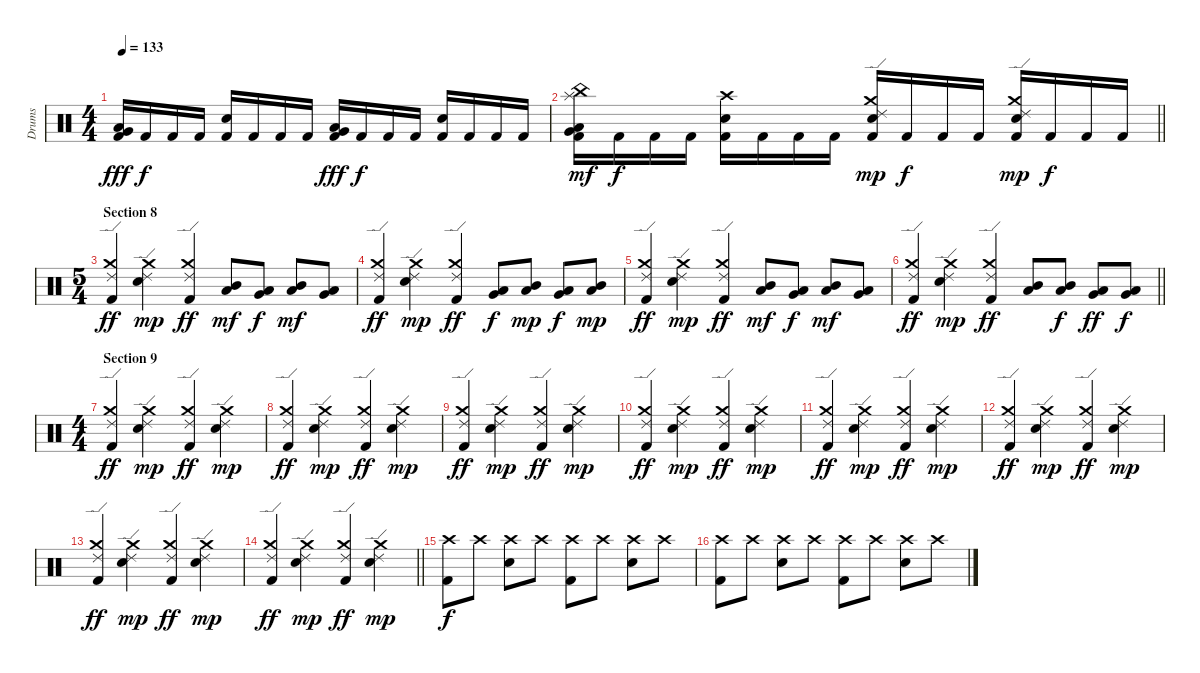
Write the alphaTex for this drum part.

\track ("Drums" "Drums") {instrument percussion}
\staff {score}
\articulation defaults
\ts (4 4)
\tempo 133
\clef neutral
\ks c
("Very Low Tom (hit)" "Low Floor Tom (hit)" "Kick (hit) 2").16{dy fff} "Kick (hit) 2".16{dy f} "Kick (hit) 2".16 "Kick (hit) 2".16 ("Electric Snare (hit)" "Kick (hit) 2").16 "Kick (hit) 2".16 "Kick (hit) 2".16 "Kick (hit) 2".16 ("Very Low Tom (hit)" "Low Floor Tom (hit)" "Kick (hit) 2").16{dy fff} "Kick (hit) 2".16{dy f} "Kick (hit) 2".16 "Kick (hit) 2".16 ("Electric Snare (hit)" "Kick (hit) 2").16 "Kick (hit) 2".16 "Kick (hit) 2".16 "Kick (hit) 2".16 |
\barLineRight lightlight
("Splash (hit)" "China (hit)" "Low Floor Tom (hit)" "Very Low Tom (hit)" "Kick (hit) 2").16{dy mf} "Kick (hit) 2".16{dy f} "Kick (hit) 2".16 "Kick (hit) 2".16 ("Crash high (hit)" "Electric Snare (hit)" "Kick (hit) 2").16 "Kick (hit) 2".16 "Kick (hit) 2".16 "Kick (hit) 2".16 ("Crash medium (hit)" "Ride (edge) 2" "Electric Snare (hit)" "Kick (hit) 2").16{dy mp} "Kick (hit) 2".16{dy f} "Kick (hit) 2".16 "Kick (hit) 2".16 ("Crash medium (hit)" "Ride (edge) 2" "Electric Snare (hit)" "Kick (hit) 2").16{dy mp} "Kick (hit) 2".16{dy f} "Kick (hit) 2".16 "Kick (hit) 2".16 |
\ts (5 4)
\section ("" "Section 8")
("Crash medium (hit)" "Ride (edge) 2" "Kick (hit) 2").4{dy ff} ("Crash medium (hit)" "Ride (edge) 2" "Electric Snare (hit)").4{dy mp} ("Crash medium (hit)" "Ride (edge) 2" "Kick (hit) 2").4{dy ff} ("Low Tom (hit)" "Mid Tom (hit)").8{dy mf} ("Very Low Tom (hit)" "Low Floor Tom (hit)").8{dy f} ("Low Tom (hit)" "Mid Tom (hit)").8{dy mf} ("Very Low Tom (hit)" "Low Floor Tom (hit)").8 |
("Crash medium (hit)" "Ride (edge) 2" "Kick (hit) 2").4{dy ff} ("Crash medium (hit)" "Ride (edge) 2" "Electric Snare (hit)").4{dy mp} ("Crash medium (hit)" "Ride (edge) 2" "Kick (hit) 2").4{dy ff} ("Very Low Tom (hit)" "Low Floor Tom (hit)").8{dy f} ("Low Tom (hit)" "Mid Tom (hit)").8{dy mp} ("Very Low Tom (hit)" "Low Floor Tom (hit)").8{dy f} ("Low Tom (hit)" "Mid Tom (hit)").8{dy mp} |
("Crash medium (hit)" "Ride (edge) 2" "Kick (hit) 2").4{dy ff} ("Crash medium (hit)" "Ride (edge) 2" "Electric Snare (hit)").4{dy mp} ("Crash medium (hit)" "Ride (edge) 2" "Kick (hit) 2").4{dy ff} ("Low Tom (hit)" "Mid Tom (hit)").8{dy mf} ("Very Low Tom (hit)" "Low Floor Tom (hit)").8{dy f} ("Low Tom (hit)" "Mid Tom (hit)").8{dy mf} ("Very Low Tom (hit)" "Low Floor Tom (hit)").8 |
\barLineRight lightlight
("Crash medium (hit)" "Ride (edge) 2" "Kick (hit) 2").4{dy ff} ("Crash medium (hit)" "Ride (edge) 2" "Electric Snare (hit)").4{dy mp} ("Crash medium (hit)" "Ride (edge) 2" "Kick (hit) 2").4{dy ff} ("Low Tom (hit)" "Mid Tom (hit)").8 ("Low Tom (hit)" "Mid Tom (hit)").8{dy f} ("Very Low Tom (hit)" "Low Floor Tom (hit)").8{dy ff} ("Very Low Tom (hit)" "Low Floor Tom (hit)").8{dy f} |
\ts (4 4)
\section ("" "Section 9")
("Crash medium (hit)" "Ride (edge) 2" "Kick (hit) 2").4{dy ff} ("Crash medium (hit)" "Ride (edge) 2" "Electric Snare (hit)").4{dy mp} ("Crash medium (hit)" "Ride (edge) 2" "Kick (hit) 2").4{dy ff} ("Crash medium (hit)" "Ride (edge) 2" "Electric Snare (hit)").4{dy mp} |
("Crash medium (hit)" "Ride (edge) 2" "Kick (hit) 2").4{dy ff} ("Crash medium (hit)" "Ride (edge) 2" "Electric Snare (hit)").4{dy mp} ("Crash medium (hit)" "Ride (edge) 2" "Kick (hit) 2").4{dy ff} ("Crash medium (hit)" "Ride (edge) 2" "Electric Snare (hit)").4{dy mp} |
("Crash medium (hit)" "Ride (edge) 2" "Kick (hit) 2").4{dy ff} ("Crash medium (hit)" "Ride (edge) 2" "Electric Snare (hit)").4{dy mp} ("Crash medium (hit)" "Ride (edge) 2" "Kick (hit) 2").4{dy ff} ("Crash medium (hit)" "Ride (edge) 2" "Electric Snare (hit)").4{dy mp} |
("Crash medium (hit)" "Ride (edge) 2" "Kick (hit) 2").4{dy ff} ("Crash medium (hit)" "Ride (edge) 2" "Electric Snare (hit)").4{dy mp} ("Crash medium (hit)" "Ride (edge) 2" "Kick (hit) 2").4{dy ff} ("Crash medium (hit)" "Ride (edge) 2" "Electric Snare (hit)").4{dy mp} |
("Crash medium (hit)" "Ride (edge) 2" "Kick (hit) 2").4{dy ff} ("Crash medium (hit)" "Ride (edge) 2" "Electric Snare (hit)").4{dy mp} ("Crash medium (hit)" "Ride (edge) 2" "Kick (hit) 2").4{dy ff} ("Crash medium (hit)" "Ride (edge) 2" "Electric Snare (hit)").4{dy mp} |
("Crash medium (hit)" "Ride (edge) 2" "Kick (hit) 2").4{dy ff} ("Crash medium (hit)" "Ride (edge) 2" "Electric Snare (hit)").4{dy mp} ("Crash medium (hit)" "Ride (edge) 2" "Kick (hit) 2").4{dy ff} ("Crash medium (hit)" "Ride (edge) 2" "Electric Snare (hit)").4{dy mp} |
("Crash medium (hit)" "Ride (edge) 2" "Kick (hit) 2").4{dy ff} ("Crash medium (hit)" "Ride (edge) 2" "Electric Snare (hit)").4{dy mp} ("Crash medium (hit)" "Ride (edge) 2" "Kick (hit) 2").4{dy ff} ("Crash medium (hit)" "Ride (edge) 2" "Electric Snare (hit)").4{dy mp} |
\barLineRight lightlight
("Crash medium (hit)" "Ride (edge) 2" "Kick (hit) 2").4{dy ff} ("Crash medium (hit)" "Ride (edge) 2" "Electric Snare (hit)").4{dy mp} ("Crash medium (hit)" "Ride (edge) 2" "Kick (hit) 2").4{dy ff} ("Crash medium (hit)" "Ride (edge) 2" "Electric Snare (hit)").4{dy mp} |
("Crash high (hit)" "Kick (hit) 2").8{dy f} "Crash high (hit)".8 ("Crash high (hit)" "Electric Snare (hit)").8 "Crash high (hit)".8 ("Crash high (hit)" "Kick (hit) 2").8 "Crash high (hit)".8 ("Crash high (hit)" "Electric Snare (hit)").8 "Crash high (hit)".8 |
("Crash high (hit)" "Kick (hit) 2").8 "Crash high (hit)".8 ("Crash high (hit)" "Electric Snare (hit)").8 "Crash high (hit)".8 ("Crash high (hit)" "Kick (hit) 2").8 "Crash high (hit)".8 ("Crash high (hit)" "Electric Snare (hit)").8 "Crash high (hit)".8
